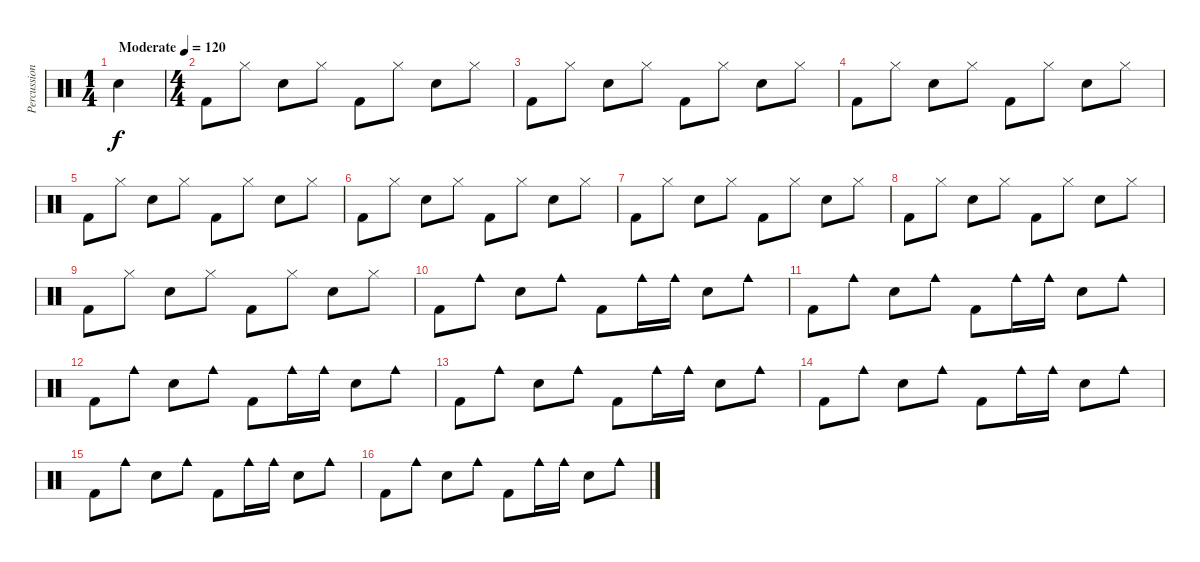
\track ("Percussion" "Percussion") {instrument percussion}
\staff {score}
\articulation defaults
\ts (1 4)
\tempo (120 "Moderate")
\clef neutral
\ks c "Snare (hit) 2".4{dy f}
|
\ts (4 4)
"Kick (hit) 2".8 "Hi-Hat (closed)".8 "Electric Snare (hit)".8 "Hi-Hat (closed)".8 "Kick (hit) 2".8 "Hi-Hat (closed)".8 "Electric Snare (hit)".8 "Hi-Hat (closed)".8 |
"Kick (hit) 2".8 "Hi-Hat (closed)".8 "Electric Snare (hit)".8 "Hi-Hat (closed)".8 "Kick (hit) 2".8 "Hi-Hat (closed)".8 "Electric Snare (hit)".8 "Hi-Hat (closed)".8 |
"Kick (hit) 2".8 "Hi-Hat (closed)".8 "Electric Snare (hit)".8 "Hi-Hat (closed)".8 "Kick (hit) 2".8 "Hi-Hat (closed)".8 "Electric Snare (hit)".8 "Hi-Hat (closed)".8 |
"Kick (hit) 2".8 "Hi-Hat (closed)".8 "Electric Snare (hit)".8 "Hi-Hat (closed)".8 "Kick (hit) 2".8 "Hi-Hat (closed)".8 "Electric Snare (hit)".8 "Hi-Hat (closed)".8 |
"Kick (hit) 2".8 "Hi-Hat (closed)".8 "Electric Snare (hit)".8 "Hi-Hat (closed)".8 "Kick (hit) 2".8 "Hi-Hat (closed)".8 "Electric Snare (hit)".8 "Hi-Hat (closed)".8 |
"Kick (hit) 2".8 "Hi-Hat (closed)".8 "Electric Snare (hit)".8 "Hi-Hat (closed)".8 "Kick (hit) 2".8 "Hi-Hat (closed)".8 "Electric Snare (hit)".8 "Hi-Hat (closed)".8 |
"Kick (hit) 2".8 "Hi-Hat (closed)".8 "Electric Snare (hit)".8 "Hi-Hat (closed)".8 "Kick (hit) 2".8 "Hi-Hat (closed)".8 "Electric Snare (hit)".8 "Hi-Hat (closed)".8 |
"Kick (hit) 2".8 "Hi-Hat (closed)".8 "Electric Snare (hit)".8 "Hi-Hat (closed)".8 "Kick (hit) 2".8 "Hi-Hat (closed)".8 "Electric Snare (hit)".8 "Hi-Hat (closed)".8 |
"Kick (hit) 2".8 "Cowbell medium (hit)".8 "Electric Snare (hit)".8 "Cowbell medium (hit)".8 "Kick (hit) 2".8 "Cowbell medium (hit)".16 "Cowbell medium (hit)".16 "Electric Snare (hit)".8 "Cowbell medium (hit)".8 |
"Kick (hit) 2".8 "Cowbell medium (hit)".8 "Electric Snare (hit)".8 "Cowbell medium (hit)".8 "Kick (hit) 2".8 "Cowbell medium (hit)".16 "Cowbell medium (hit)".16 "Electric Snare (hit)".8 "Cowbell medium (hit)".8 |
"Kick (hit) 2".8 "Cowbell medium (hit)".8 "Electric Snare (hit)".8 "Cowbell medium (hit)".8 "Kick (hit) 2".8 "Cowbell medium (hit)".16 "Cowbell medium (hit)".16 "Electric Snare (hit)".8 "Cowbell medium (hit)".8 |
"Kick (hit) 2".8 "Cowbell medium (hit)".8 "Electric Snare (hit)".8 "Cowbell medium (hit)".8 "Kick (hit) 2".8 "Cowbell medium (hit)".16 "Cowbell medium (hit)".16 "Electric Snare (hit)".8 "Cowbell medium (hit)".8 |
"Kick (hit) 2".8 "Cowbell medium (hit)".8 "Electric Snare (hit)".8 "Cowbell medium (hit)".8 "Kick (hit) 2".8 "Cowbell medium (hit)".16 "Cowbell medium (hit)".16 "Electric Snare (hit)".8 "Cowbell medium (hit)".8 |
"Kick (hit) 2".8 "Cowbell medium (hit)".8 "Electric Snare (hit)".8 "Cowbell medium (hit)".8 "Kick (hit) 2".8 "Cowbell medium (hit)".16 "Cowbell medium (hit)".16 "Electric Snare (hit)".8 "Cowbell medium (hit)".8 |
"Kick (hit) 2".8 "Cowbell medium (hit)".8 "Electric Snare (hit)".8 "Cowbell medium (hit)".8 "Kick (hit) 2".8 "Cowbell medium (hit)".16 "Cowbell medium (hit)".16 "Electric Snare (hit)".8 "Cowbell medium (hit)".8
